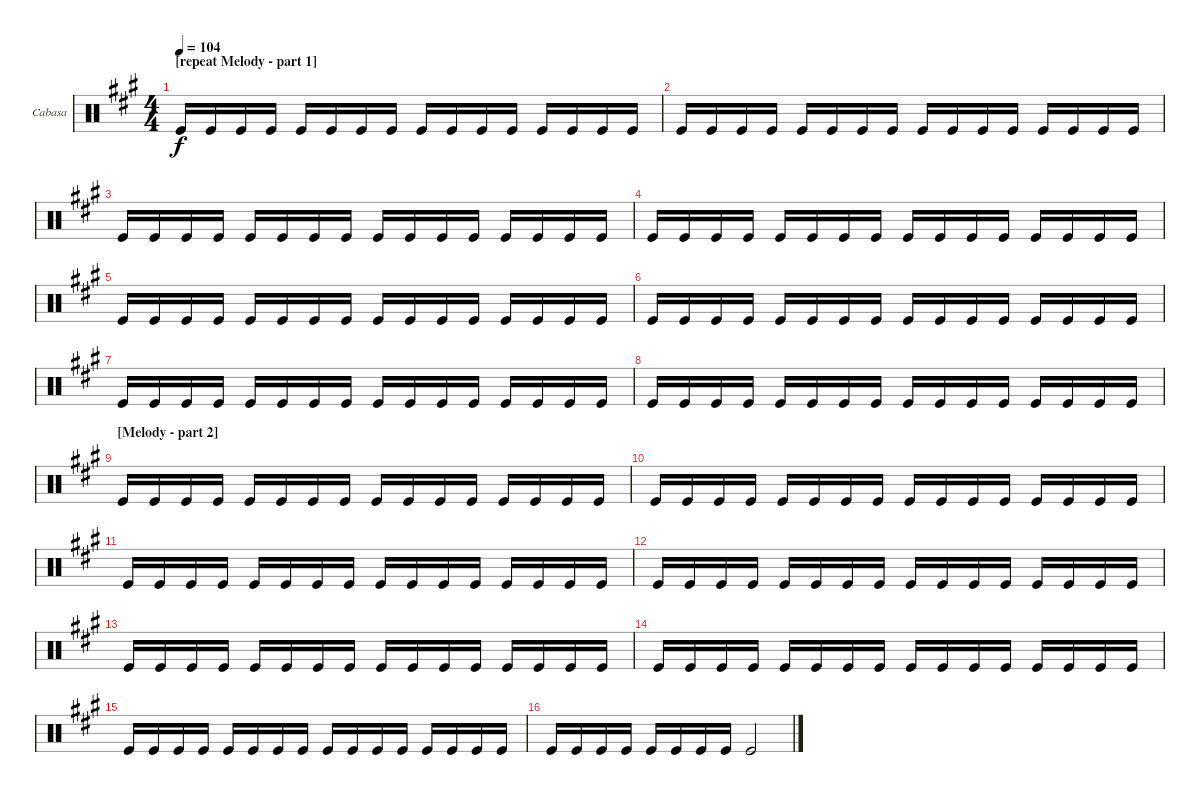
\bracketExtendMode groupsimilarinstruments
\firstSystemTrackNameOrientation horizontal
\otherSystemsTrackNameOrientation horizontal
\track ("Cabasa" "Cabasa") {instrument percussion}
\staff {score}
\articulation defaults
\ts (4 4)
\section ("" "[repeat Melody - part 1]")
\tempo 104
\clef neutral
\ks a "Kick (hit)".16{dy f} "Kick (hit)".16 "Kick (hit)".16 "Kick (hit)".16 "Kick (hit)".16 "Kick (hit)".16 "Kick (hit)".16 "Kick (hit)".16 "Kick (hit)".16 "Kick (hit)".16 "Kick (hit)".16 "Kick (hit)".16 "Kick (hit)".16 "Kick (hit)".16 "Kick (hit)".16 "Kick (hit)".16
|
"Kick (hit)".16 "Kick (hit)".16 "Kick (hit)".16 "Kick (hit)".16 "Kick (hit)".16 "Kick (hit)".16 "Kick (hit)".16 "Kick (hit)".16 "Kick (hit)".16 "Kick (hit)".16 "Kick (hit)".16 "Kick (hit)".16 "Kick (hit)".16 "Kick (hit)".16 "Kick (hit)".16 "Kick (hit)".16 |
"Kick (hit)".16 "Kick (hit)".16 "Kick (hit)".16 "Kick (hit)".16 "Kick (hit)".16 "Kick (hit)".16 "Kick (hit)".16 "Kick (hit)".16 "Kick (hit)".16 "Kick (hit)".16 "Kick (hit)".16 "Kick (hit)".16 "Kick (hit)".16 "Kick (hit)".16 "Kick (hit)".16 "Kick (hit)".16 |
"Kick (hit)".16 "Kick (hit)".16 "Kick (hit)".16 "Kick (hit)".16 "Kick (hit)".16 "Kick (hit)".16 "Kick (hit)".16 "Kick (hit)".16 "Kick (hit)".16 "Kick (hit)".16 "Kick (hit)".16 "Kick (hit)".16 "Kick (hit)".16 "Kick (hit)".16 "Kick (hit)".16 "Kick (hit)".16 |
"Kick (hit)".16 "Kick (hit)".16 "Kick (hit)".16 "Kick (hit)".16 "Kick (hit)".16 "Kick (hit)".16 "Kick (hit)".16 "Kick (hit)".16 "Kick (hit)".16 "Kick (hit)".16 "Kick (hit)".16 "Kick (hit)".16 "Kick (hit)".16 "Kick (hit)".16 "Kick (hit)".16 "Kick (hit)".16 |
"Kick (hit)".16 "Kick (hit)".16 "Kick (hit)".16 "Kick (hit)".16 "Kick (hit)".16 "Kick (hit)".16 "Kick (hit)".16 "Kick (hit)".16 "Kick (hit)".16 "Kick (hit)".16 "Kick (hit)".16 "Kick (hit)".16 "Kick (hit)".16 "Kick (hit)".16 "Kick (hit)".16 "Kick (hit)".16 |
"Kick (hit)".16 "Kick (hit)".16 "Kick (hit)".16 "Kick (hit)".16 "Kick (hit)".16 "Kick (hit)".16 "Kick (hit)".16 "Kick (hit)".16 "Kick (hit)".16 "Kick (hit)".16 "Kick (hit)".16 "Kick (hit)".16 "Kick (hit)".16 "Kick (hit)".16 "Kick (hit)".16 "Kick (hit)".16 |
"Kick (hit)".16 "Kick (hit)".16 "Kick (hit)".16 "Kick (hit)".16 "Kick (hit)".16 "Kick (hit)".16 "Kick (hit)".16 "Kick (hit)".16 "Kick (hit)".16 "Kick (hit)".16 "Kick (hit)".16 "Kick (hit)".16 "Kick (hit)".16 "Kick (hit)".16 "Kick (hit)".16 "Kick (hit)".16 |
\section ("" "[Melody - part 2]")
"Kick (hit)".16 "Kick (hit)".16 "Kick (hit)".16 "Kick (hit)".16 "Kick (hit)".16 "Kick (hit)".16 "Kick (hit)".16 "Kick (hit)".16 "Kick (hit)".16 "Kick (hit)".16 "Kick (hit)".16 "Kick (hit)".16 "Kick (hit)".16 "Kick (hit)".16 "Kick (hit)".16 "Kick (hit)".16 |
"Kick (hit)".16 "Kick (hit)".16 "Kick (hit)".16 "Kick (hit)".16 "Kick (hit)".16 "Kick (hit)".16 "Kick (hit)".16 "Kick (hit)".16 "Kick (hit)".16 "Kick (hit)".16 "Kick (hit)".16 "Kick (hit)".16 "Kick (hit)".16 "Kick (hit)".16 "Kick (hit)".16 "Kick (hit)".16 |
"Kick (hit)".16 "Kick (hit)".16 "Kick (hit)".16 "Kick (hit)".16 "Kick (hit)".16 "Kick (hit)".16 "Kick (hit)".16 "Kick (hit)".16 "Kick (hit)".16 "Kick (hit)".16 "Kick (hit)".16 "Kick (hit)".16 "Kick (hit)".16 "Kick (hit)".16 "Kick (hit)".16 "Kick (hit)".16 |
"Kick (hit)".16 "Kick (hit)".16 "Kick (hit)".16 "Kick (hit)".16 "Kick (hit)".16 "Kick (hit)".16 "Kick (hit)".16 "Kick (hit)".16 "Kick (hit)".16 "Kick (hit)".16 "Kick (hit)".16 "Kick (hit)".16 "Kick (hit)".16 "Kick (hit)".16 "Kick (hit)".16 "Kick (hit)".16 |
"Kick (hit)".16 "Kick (hit)".16 "Kick (hit)".16 "Kick (hit)".16 "Kick (hit)".16 "Kick (hit)".16 "Kick (hit)".16 "Kick (hit)".16 "Kick (hit)".16 "Kick (hit)".16 "Kick (hit)".16 "Kick (hit)".16 "Kick (hit)".16 "Kick (hit)".16 "Kick (hit)".16 "Kick (hit)".16 |
"Kick (hit)".16 "Kick (hit)".16 "Kick (hit)".16 "Kick (hit)".16 "Kick (hit)".16 "Kick (hit)".16 "Kick (hit)".16 "Kick (hit)".16 "Kick (hit)".16 "Kick (hit)".16 "Kick (hit)".16 "Kick (hit)".16 "Kick (hit)".16 "Kick (hit)".16 "Kick (hit)".16 "Kick (hit)".16 |
"Kick (hit)".16 "Kick (hit)".16 "Kick (hit)".16 "Kick (hit)".16 "Kick (hit)".16 "Kick (hit)".16 "Kick (hit)".16 "Kick (hit)".16 "Kick (hit)".16 "Kick (hit)".16 "Kick (hit)".16 "Kick (hit)".16 "Kick (hit)".16 "Kick (hit)".16 "Kick (hit)".16 "Kick (hit)".16 |
"Kick (hit)".16 "Kick (hit)".16 "Kick (hit)".16 "Kick (hit)".16 "Kick (hit)".16 "Kick (hit)".16 "Kick (hit)".16 "Kick (hit)".16 "Kick (hit)".2
